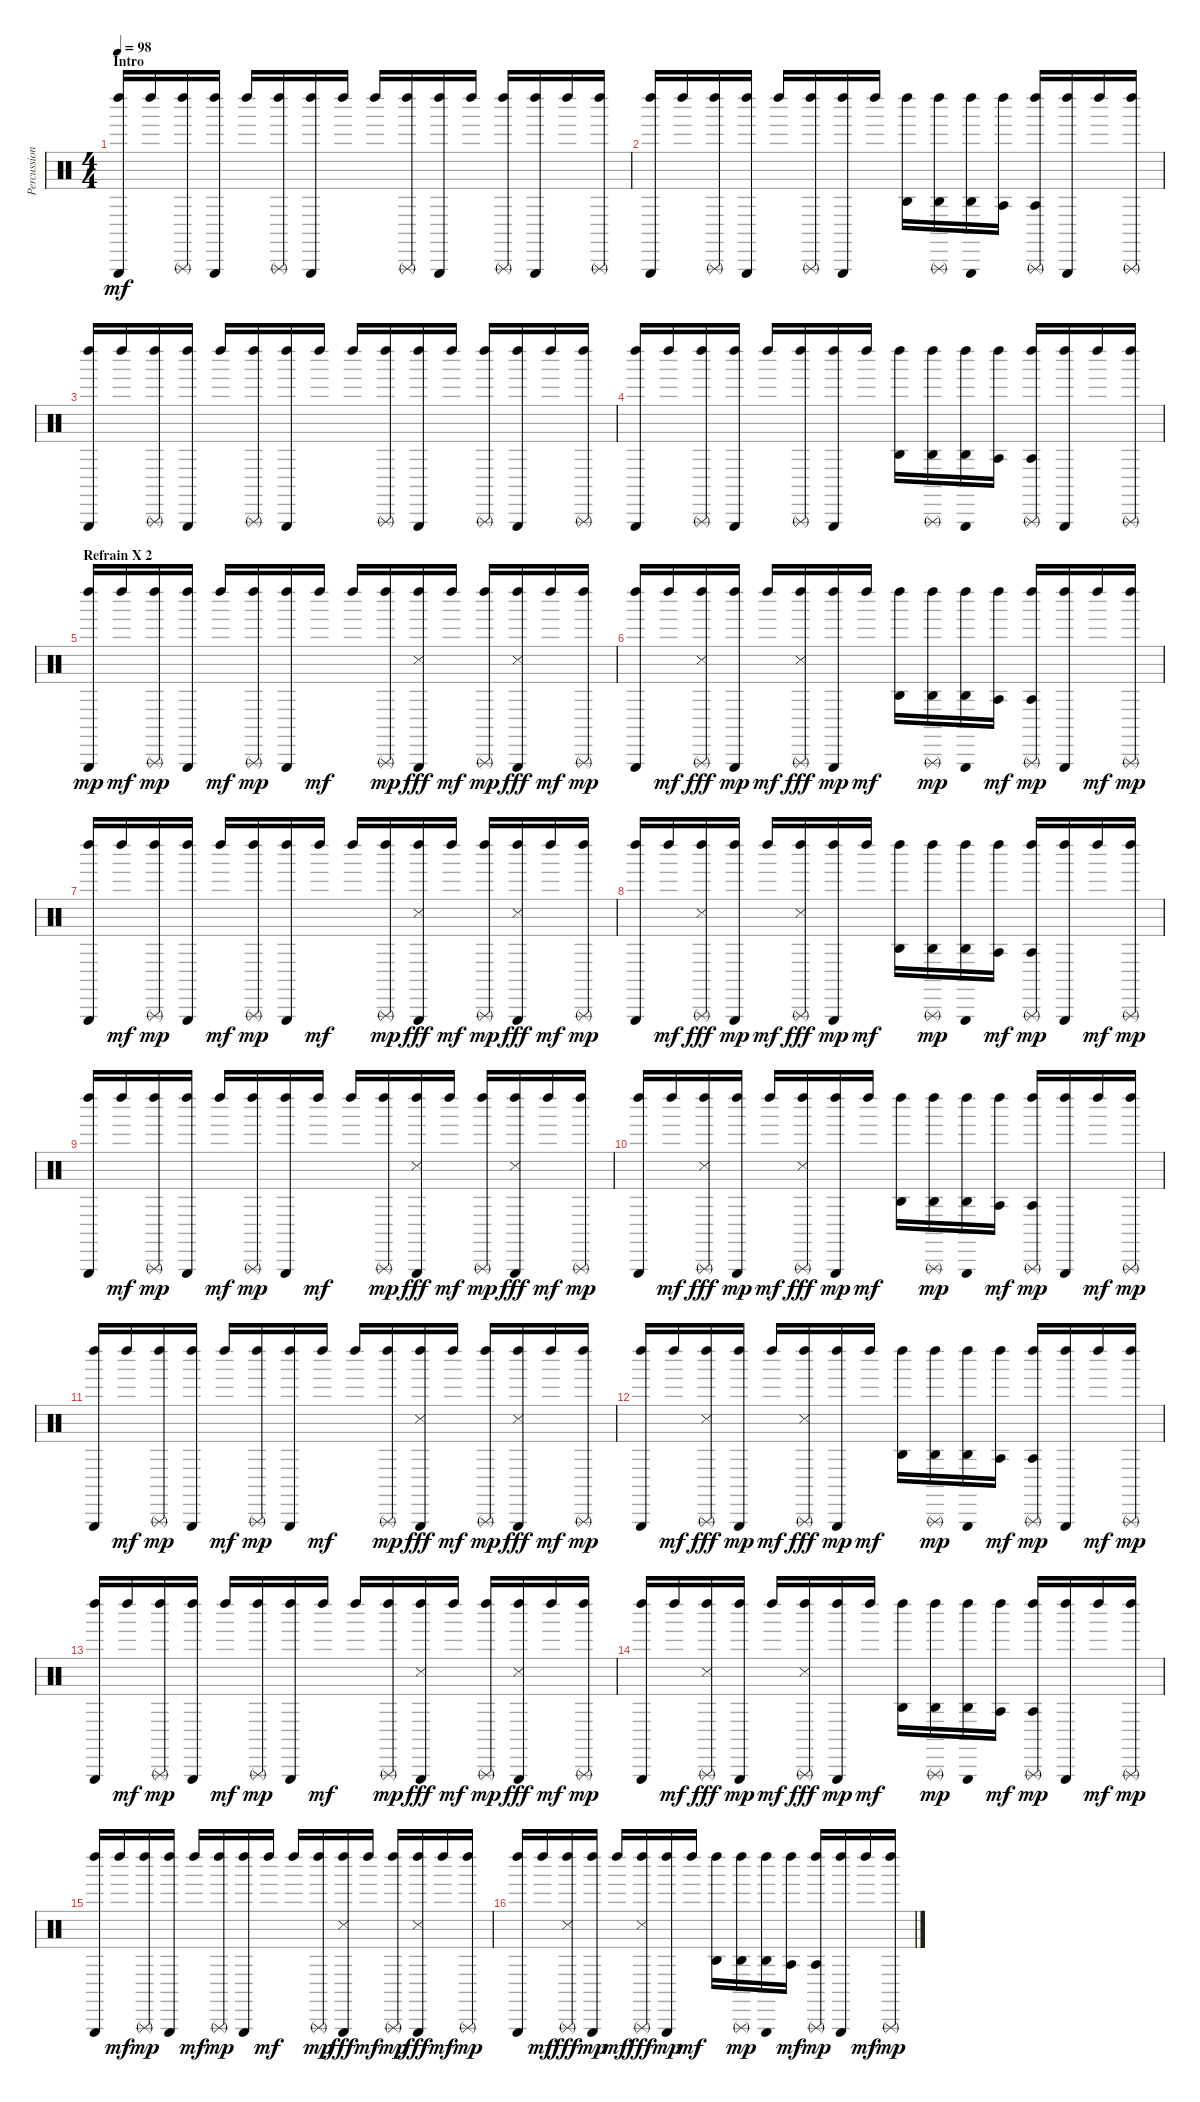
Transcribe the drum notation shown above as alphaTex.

\track ("Percussions" "Percussion") {instrument percussion}
\staff {score}
\articulation defaults
\ts (4 4)
\section ("" "Intro")
\tempo 98
\clef neutral
\ks c
("Left Maraca (hit)" "Triangle (hit)").16{dy mf} "Left Maraca (hit)".16 ("Left Maraca (hit)" "Triangle (rnute)").16 ("Left Maraca (hit)" "Triangle (hit)").16 "Left Maraca (hit)".16 ("Left Maraca (hit)" "Triangle (rnute)").16 ("Left Maraca (hit)" "Triangle (hit)").16 "Left Maraca (hit)".16 "Left Maraca (hit)".16 ("Left Maraca (hit)" "Triangle (rnute)").16 ("Left Maraca (hit)" "Triangle (hit)").16 "Left Maraca (hit)".16 ("Left Maraca (hit)" "Triangle (rnute)").16 ("Left Maraca (hit)" "Triangle (hit)").16 "Left Maraca (hit)".16 ("Left Maraca (hit)" "Triangle (rnute)").16 |
("Left Maraca (hit)" "Triangle (hit)").16 "Left Maraca (hit)".16 ("Left Maraca (hit)" "Triangle (rnute)").16 ("Left Maraca (hit)" "Triangle (hit)").16 "Left Maraca (hit)".16 ("Left Maraca (hit)" "Triangle (rnute)").16 ("Left Maraca (hit)" "Triangle (hit)").16 "Left Maraca (hit)".16 ("Left Maraca (hit)" "Agogo high (hit)").16 ("Left Maraca (hit)" "Triangle (rnute)" "Agogo high (hit)").16 ("Left Maraca (hit)" "Triangle (hit)" "Agogo high (hit)").16 ("Left Maraca (hit)" "Agogo tow (hit)").16 ("Left Maraca (hit)" "Triangle (rnute)" "Agogo tow (hit)").16 ("Left Maraca (hit)" "Triangle (hit)").16 "Left Maraca (hit)".16 ("Left Maraca (hit)" "Triangle (rnute)").16 |
("Left Maraca (hit)" "Triangle (hit)").16 "Left Maraca (hit)".16 ("Left Maraca (hit)" "Triangle (rnute)").16 ("Left Maraca (hit)" "Triangle (hit)").16 "Left Maraca (hit)".16 ("Left Maraca (hit)" "Triangle (rnute)").16 ("Left Maraca (hit)" "Triangle (hit)").16 "Left Maraca (hit)".16 "Left Maraca (hit)".16 ("Left Maraca (hit)" "Triangle (rnute)").16 ("Left Maraca (hit)" "Triangle (hit)").16 "Left Maraca (hit)".16 ("Left Maraca (hit)" "Triangle (rnute)").16 ("Left Maraca (hit)" "Triangle (hit)").16 "Left Maraca (hit)".16 ("Left Maraca (hit)" "Triangle (rnute)").16 |
("Left Maraca (hit)" "Triangle (hit)").16 "Left Maraca (hit)".16 ("Left Maraca (hit)" "Triangle (rnute)").16 ("Left Maraca (hit)" "Triangle (hit)").16 "Left Maraca (hit)".16 ("Left Maraca (hit)" "Triangle (rnute)").16 ("Left Maraca (hit)" "Triangle (hit)").16 "Left Maraca (hit)".16 ("Left Maraca (hit)" "Agogo high (hit)").16 ("Left Maraca (hit)" "Triangle (rnute)" "Agogo high (hit)").16 ("Left Maraca (hit)" "Triangle (hit)" "Agogo high (hit)").16 ("Left Maraca (hit)" "Agogo tow (hit)").16 ("Left Maraca (hit)" "Triangle (rnute)" "Agogo tow (hit)").16 ("Left Maraca (hit)" "Triangle (hit)").16 "Left Maraca (hit)".16 ("Left Maraca (hit)" "Triangle (rnute)").16 |
\section ("" "Refrain X 2")
("Left Maraca (hit)" "Triangle (hit)").16{dy mp} "Left Maraca (hit)".16{dy mf} ("Left Maraca (hit)" "Triangle (rnute)").16{dy mp} ("Left Maraca (hit)" "Triangle (hit)").16 "Left Maraca (hit)".16{dy mf} ("Left Maraca (hit)" "Triangle (rnute)").16{dy mp} ("Left Maraca (hit)" "Triangle (hit)").16 "Left Maraca (hit)".16{dy mf} "Left Maraca (hit)".16 ("Left Maraca (hit)" "Triangle (rnute)").16{dy mp} ("Left Maraca (hit)" "Triangle (hit)" "Snare (side stick) 3").16{dy fff} "Left Maraca (hit)".16{dy mf} ("Left Maraca (hit)" "Triangle (rnute)").16{dy mp} ("Left Maraca (hit)" "Triangle (hit)" "Snare (side stick) 3").16{dy fff} "Left Maraca (hit)".16{dy mf} ("Left Maraca (hit)" "Triangle (rnute)").16{dy mp} |
("Left Maraca (hit)" "Triangle (hit)").16 "Left Maraca (hit)".16{dy mf} ("Left Maraca (hit)" "Triangle (rnute)" "Snare (side stick) 3").16{dy fff} ("Left Maraca (hit)" "Triangle (hit)").16{dy mp} "Left Maraca (hit)".16{dy mf} ("Left Maraca (hit)" "Triangle (rnute)" "Snare (side stick) 3").16{dy fff} ("Left Maraca (hit)" "Triangle (hit)").16{dy mp} "Left Maraca (hit)".16{dy mf} ("Left Maraca (hit)" "Agogo high (hit)").16 ("Left Maraca (hit)" "Triangle (rnute)" "Agogo high (hit)").16{dy mp} ("Left Maraca (hit)" "Triangle (hit)" "Agogo high (hit)").16 ("Left Maraca (hit)" "Agogo tow (hit)").16{dy mf} ("Left Maraca (hit)" "Triangle (rnute)" "Agogo tow (hit)").16{dy mp} ("Left Maraca (hit)" "Triangle (hit)").16 "Left Maraca (hit)".16{dy mf} ("Left Maraca (hit)" "Triangle (rnute)").16{dy mp} |
("Left Maraca (hit)" "Triangle (hit)").16 "Left Maraca (hit)".16{dy mf} ("Left Maraca (hit)" "Triangle (rnute)").16{dy mp} ("Left Maraca (hit)" "Triangle (hit)").16 "Left Maraca (hit)".16{dy mf} ("Left Maraca (hit)" "Triangle (rnute)").16{dy mp} ("Left Maraca (hit)" "Triangle (hit)").16 "Left Maraca (hit)".16{dy mf} "Left Maraca (hit)".16 ("Left Maraca (hit)" "Triangle (rnute)").16{dy mp} ("Left Maraca (hit)" "Triangle (hit)" "Snare (side stick) 3").16{dy fff} "Left Maraca (hit)".16{dy mf} ("Left Maraca (hit)" "Triangle (rnute)").16{dy mp} ("Left Maraca (hit)" "Triangle (hit)" "Snare (side stick) 3").16{dy fff} "Left Maraca (hit)".16{dy mf} ("Left Maraca (hit)" "Triangle (rnute)").16{dy mp} |
("Left Maraca (hit)" "Triangle (hit)").16 "Left Maraca (hit)".16{dy mf} ("Left Maraca (hit)" "Triangle (rnute)" "Snare (side stick) 3").16{dy fff} ("Left Maraca (hit)" "Triangle (hit)").16{dy mp} "Left Maraca (hit)".16{dy mf} ("Left Maraca (hit)" "Triangle (rnute)" "Snare (side stick) 3").16{dy fff} ("Left Maraca (hit)" "Triangle (hit)").16{dy mp} "Left Maraca (hit)".16{dy mf} ("Left Maraca (hit)" "Agogo high (hit)").16 ("Left Maraca (hit)" "Triangle (rnute)" "Agogo high (hit)").16{dy mp} ("Left Maraca (hit)" "Triangle (hit)" "Agogo high (hit)").16 ("Left Maraca (hit)" "Agogo tow (hit)").16{dy mf} ("Left Maraca (hit)" "Triangle (rnute)" "Agogo tow (hit)").16{dy mp} ("Left Maraca (hit)" "Triangle (hit)").16 "Left Maraca (hit)".16{dy mf} ("Left Maraca (hit)" "Triangle (rnute)").16{dy mp} |
("Left Maraca (hit)" "Triangle (hit)").16 "Left Maraca (hit)".16{dy mf} ("Left Maraca (hit)" "Triangle (rnute)").16{dy mp} ("Left Maraca (hit)" "Triangle (hit)").16 "Left Maraca (hit)".16{dy mf} ("Left Maraca (hit)" "Triangle (rnute)").16{dy mp} ("Left Maraca (hit)" "Triangle (hit)").16 "Left Maraca (hit)".16{dy mf} "Left Maraca (hit)".16 ("Left Maraca (hit)" "Triangle (rnute)").16{dy mp} ("Left Maraca (hit)" "Triangle (hit)" "Snare (side stick) 3").16{dy fff} "Left Maraca (hit)".16{dy mf} ("Left Maraca (hit)" "Triangle (rnute)").16{dy mp} ("Left Maraca (hit)" "Triangle (hit)" "Snare (side stick) 3").16{dy fff} "Left Maraca (hit)".16{dy mf} ("Left Maraca (hit)" "Triangle (rnute)").16{dy mp} |
("Left Maraca (hit)" "Triangle (hit)").16 "Left Maraca (hit)".16{dy mf} ("Left Maraca (hit)" "Triangle (rnute)" "Snare (side stick) 3").16{dy fff} ("Left Maraca (hit)" "Triangle (hit)").16{dy mp} "Left Maraca (hit)".16{dy mf} ("Left Maraca (hit)" "Triangle (rnute)" "Snare (side stick) 3").16{dy fff} ("Left Maraca (hit)" "Triangle (hit)").16{dy mp} "Left Maraca (hit)".16{dy mf} ("Left Maraca (hit)" "Agogo high (hit)").16 ("Left Maraca (hit)" "Triangle (rnute)" "Agogo high (hit)").16{dy mp} ("Left Maraca (hit)" "Triangle (hit)" "Agogo high (hit)").16 ("Left Maraca (hit)" "Agogo tow (hit)").16{dy mf} ("Left Maraca (hit)" "Triangle (rnute)" "Agogo tow (hit)").16{dy mp} ("Left Maraca (hit)" "Triangle (hit)").16 "Left Maraca (hit)".16{dy mf} ("Left Maraca (hit)" "Triangle (rnute)").16{dy mp} |
("Left Maraca (hit)" "Triangle (hit)").16 "Left Maraca (hit)".16{dy mf} ("Left Maraca (hit)" "Triangle (rnute)").16{dy mp} ("Left Maraca (hit)" "Triangle (hit)").16 "Left Maraca (hit)".16{dy mf} ("Left Maraca (hit)" "Triangle (rnute)").16{dy mp} ("Left Maraca (hit)" "Triangle (hit)").16 "Left Maraca (hit)".16{dy mf} "Left Maraca (hit)".16 ("Left Maraca (hit)" "Triangle (rnute)").16{dy mp} ("Left Maraca (hit)" "Triangle (hit)" "Snare (side stick) 3").16{dy fff} "Left Maraca (hit)".16{dy mf} ("Left Maraca (hit)" "Triangle (rnute)").16{dy mp} ("Left Maraca (hit)" "Triangle (hit)" "Snare (side stick) 3").16{dy fff} "Left Maraca (hit)".16{dy mf} ("Left Maraca (hit)" "Triangle (rnute)").16{dy mp} |
("Left Maraca (hit)" "Triangle (hit)").16 "Left Maraca (hit)".16{dy mf} ("Left Maraca (hit)" "Triangle (rnute)" "Snare (side stick) 3").16{dy fff} ("Left Maraca (hit)" "Triangle (hit)").16{dy mp} "Left Maraca (hit)".16{dy mf} ("Left Maraca (hit)" "Triangle (rnute)" "Snare (side stick) 3").16{dy fff} ("Left Maraca (hit)" "Triangle (hit)").16{dy mp} "Left Maraca (hit)".16{dy mf} ("Left Maraca (hit)" "Agogo high (hit)").16 ("Left Maraca (hit)" "Triangle (rnute)" "Agogo high (hit)").16{dy mp} ("Left Maraca (hit)" "Triangle (hit)" "Agogo high (hit)").16 ("Left Maraca (hit)" "Agogo tow (hit)").16{dy mf} ("Left Maraca (hit)" "Triangle (rnute)" "Agogo tow (hit)").16{dy mp} ("Left Maraca (hit)" "Triangle (hit)").16 "Left Maraca (hit)".16{dy mf} ("Left Maraca (hit)" "Triangle (rnute)").16{dy mp} |
("Left Maraca (hit)" "Triangle (hit)").16 "Left Maraca (hit)".16{dy mf} ("Left Maraca (hit)" "Triangle (rnute)").16{dy mp} ("Left Maraca (hit)" "Triangle (hit)").16 "Left Maraca (hit)".16{dy mf} ("Left Maraca (hit)" "Triangle (rnute)").16{dy mp} ("Left Maraca (hit)" "Triangle (hit)").16 "Left Maraca (hit)".16{dy mf} "Left Maraca (hit)".16 ("Left Maraca (hit)" "Triangle (rnute)").16{dy mp} ("Left Maraca (hit)" "Triangle (hit)" "Snare (side stick) 3").16{dy fff} "Left Maraca (hit)".16{dy mf} ("Left Maraca (hit)" "Triangle (rnute)").16{dy mp} ("Left Maraca (hit)" "Triangle (hit)" "Snare (side stick) 3").16{dy fff} "Left Maraca (hit)".16{dy mf} ("Left Maraca (hit)" "Triangle (rnute)").16{dy mp} |
("Left Maraca (hit)" "Triangle (hit)").16 "Left Maraca (hit)".16{dy mf} ("Left Maraca (hit)" "Triangle (rnute)" "Snare (side stick) 3").16{dy fff} ("Left Maraca (hit)" "Triangle (hit)").16{dy mp} "Left Maraca (hit)".16{dy mf} ("Left Maraca (hit)" "Triangle (rnute)" "Snare (side stick) 3").16{dy fff} ("Left Maraca (hit)" "Triangle (hit)").16{dy mp} "Left Maraca (hit)".16{dy mf} ("Left Maraca (hit)" "Agogo high (hit)").16 ("Left Maraca (hit)" "Triangle (rnute)" "Agogo high (hit)").16{dy mp} ("Left Maraca (hit)" "Triangle (hit)" "Agogo high (hit)").16 ("Left Maraca (hit)" "Agogo tow (hit)").16{dy mf} ("Left Maraca (hit)" "Triangle (rnute)" "Agogo tow (hit)").16{dy mp} ("Left Maraca (hit)" "Triangle (hit)").16 "Left Maraca (hit)".16{dy mf} ("Left Maraca (hit)" "Triangle (rnute)").16{dy mp} |
("Left Maraca (hit)" "Triangle (hit)").16 "Left Maraca (hit)".16{dy mf} ("Left Maraca (hit)" "Triangle (rnute)").16{dy mp} ("Left Maraca (hit)" "Triangle (hit)").16 "Left Maraca (hit)".16{dy mf} ("Left Maraca (hit)" "Triangle (rnute)").16{dy mp} ("Left Maraca (hit)" "Triangle (hit)").16 "Left Maraca (hit)".16{dy mf} "Left Maraca (hit)".16 ("Left Maraca (hit)" "Triangle (rnute)").16{dy mp} ("Left Maraca (hit)" "Triangle (hit)" "Snare (side stick) 3").16{dy fff} "Left Maraca (hit)".16{dy mf} ("Left Maraca (hit)" "Triangle (rnute)").16{dy mp} ("Left Maraca (hit)" "Triangle (hit)" "Snare (side stick) 3").16{dy fff} "Left Maraca (hit)".16{dy mf} ("Left Maraca (hit)" "Triangle (rnute)").16{dy mp} |
("Left Maraca (hit)" "Triangle (hit)").16 "Left Maraca (hit)".16{dy mf} ("Left Maraca (hit)" "Triangle (rnute)" "Snare (side stick) 3").16{dy fff} ("Left Maraca (hit)" "Triangle (hit)").16{dy mp} "Left Maraca (hit)".16{dy mf} ("Left Maraca (hit)" "Triangle (rnute)" "Snare (side stick) 3").16{dy fff} ("Left Maraca (hit)" "Triangle (hit)").16{dy mp} "Left Maraca (hit)".16{dy mf} ("Left Maraca (hit)" "Agogo high (hit)").16 ("Left Maraca (hit)" "Triangle (rnute)" "Agogo high (hit)").16{dy mp} ("Left Maraca (hit)" "Triangle (hit)" "Agogo high (hit)").16 ("Left Maraca (hit)" "Agogo tow (hit)").16{dy mf} ("Left Maraca (hit)" "Triangle (rnute)" "Agogo tow (hit)").16{dy mp} ("Left Maraca (hit)" "Triangle (hit)").16 "Left Maraca (hit)".16{dy mf} ("Left Maraca (hit)" "Triangle (rnute)").16{dy mp}
